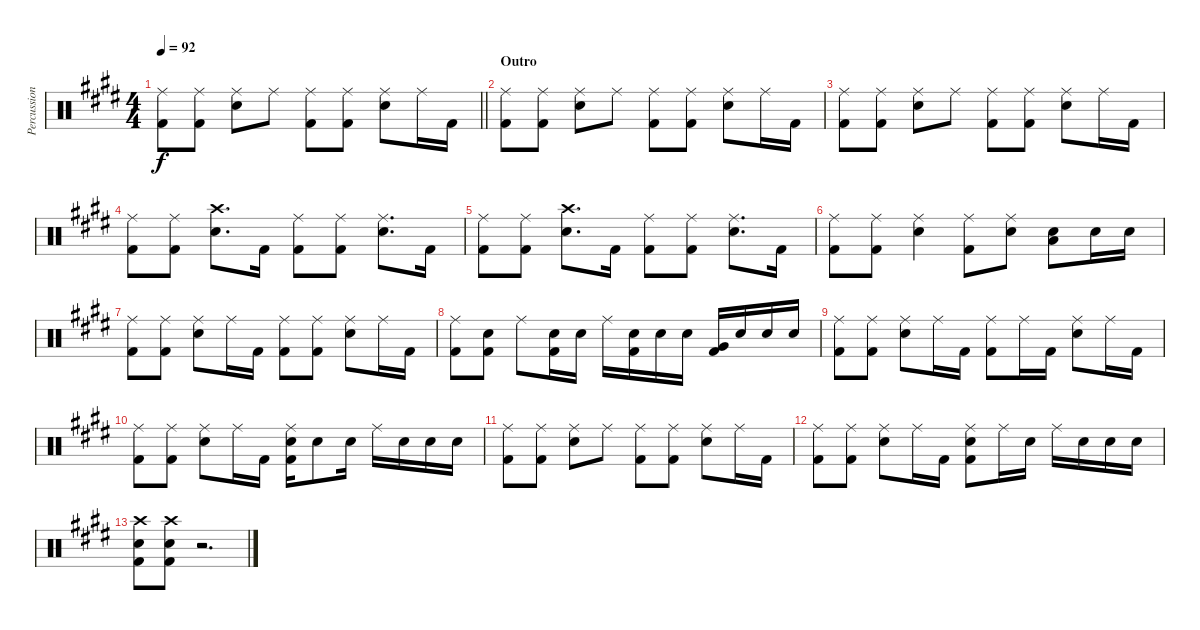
\track ("Percussion" "Percussion") {instrument percussion}
\staff {score}
\articulation defaults
\ts (4 4)
\tempo 92
\clef neutral
\barLineRight lightlight
\ks e
("Ride (middle)" "Kick (hit) 2").8{dy f} ("Ride (middle)" "Kick (hit) 2").8 ("Ride (middle)" "Electric Snare (hit)").8 "Ride (middle)".8 ("Ride (middle)" "Kick (hit) 2").8 ("Ride (middle)" "Kick (hit) 2").8 ("Ride (middle)" "Electric Snare (hit)").8 "Ride (middle)".16 "Kick (hit) 2".16 |
\section ("" "Outro")
("Ride (middle)" "Kick (hit) 2").8 ("Ride (middle)" "Kick (hit) 2").8 ("Ride (middle)" "Electric Snare (hit)").8 "Ride (middle)".8 ("Ride (middle)" "Kick (hit) 2").8 ("Ride (middle)" "Kick (hit) 2").8 ("Ride (middle)" "Electric Snare (hit)").8 "Ride (middle)".16 "Kick (hit) 2".16 |
("Ride (middle)" "Kick (hit) 2").8 ("Ride (middle)" "Kick (hit) 2").8 ("Ride (middle)" "Electric Snare (hit)").8 "Ride (middle)".8 ("Ride (middle)" "Kick (hit) 2").8 ("Ride (middle)" "Kick (hit) 2").8 ("Ride (middle)" "Electric Snare (hit)").8 "Ride (middle)".16 "Kick (hit) 2".16 |
("Ride (middle)" "Kick (hit) 2").8 ("Ride (middle)" "Kick (hit) 2").8 ("Crash high (hit)" "Electric Snare (hit)").8{d} "Kick (hit) 2".16 ("Ride (middle)" "Kick (hit) 2").8 ("Ride (middle)" "Kick (hit) 2").8 ("Ride (middle)" "Electric Snare (hit)").8{d} "Kick (hit) 2".16 |
("Ride (middle)" "Kick (hit) 2").8 ("Ride (middle)" "Kick (hit) 2").8 ("Crash high (hit)" "Electric Snare (hit)").8{d} "Kick (hit) 2".16 ("Ride (middle)" "Kick (hit) 2").8 ("Ride (middle)" "Kick (hit) 2").8 ("Ride (middle)" "Electric Snare (hit)").8{d} "Kick (hit) 2".16 |
("Ride (middle)" "Kick (hit) 2").8 ("Ride (middle)" "Kick (hit) 2").8 ("Ride (middle)" "Electric Snare (hit)").4 ("Ride (middle)" "Kick (hit) 2").8 ("Ride (middle)" "Electric Snare (hit)").8 ("Low Tom (hit)" "Electric Snare (hit)").8 "Electric Snare (hit)".16 "Electric Snare (hit)".16 |
("Ride (middle)" "Kick (hit) 2").8 ("Ride (middle)" "Kick (hit) 2").8 ("Ride (middle)" "Electric Snare (hit)").8 "Ride (middle)".16 "Kick (hit) 2".16 ("Ride (middle)" "Kick (hit) 2").8 ("Ride (middle)" "Kick (hit) 2").8 ("Ride (middle)" "Electric Snare (hit)").8 "Ride (middle)".16 "Kick (hit) 2".16 |
("Ride (middle)" "Kick (hit) 2").8 ("Electric Snare (hit)" "Kick (hit) 2").8 "Ride (middle)".8 ("Electric Snare (hit)" "Kick (hit) 2").16 "Electric Snare (hit)".16 "Ride (middle)".16 ("Electric Snare (hit)" "Kick (hit) 2").16 "Electric Snare (hit)".16 "Electric Snare (hit)".16 ("Very Low Tom (hit)" "Kick (hit) 2").16 "Electric Snare (hit)".16 "Electric Snare (hit)".16 "Electric Snare (hit)".16 |
("Ride (middle)" "Kick (hit) 2").8 ("Ride (middle)" "Kick (hit) 2").8 ("Ride (middle)" "Electric Snare (hit)").8 "Ride (middle)".16 "Kick (hit) 2".16 ("Ride (middle)" "Kick (hit) 2").8 "Ride (middle)".16 "Kick (hit) 2".16 ("Ride (middle)" "Electric Snare (hit)").8 "Ride (middle)".16 "Kick (hit) 2".16 |
("Ride (middle)" "Kick (hit) 2").8 ("Ride (middle)" "Kick (hit) 2").8 ("Ride (middle)" "Electric Snare (hit)").8 "Ride (middle)".16 "Kick (hit) 2".16 ("Ride (middle)" "Electric Snare (hit)" "Kick (hit) 2").16 "Electric Snare (hit)".8 "Electric Snare (hit)".16 "Ride (middle)".16 "Electric Snare (hit)".16 "Electric Snare (hit)".16 "Electric Snare (hit)".16 |
("Ride (middle)" "Kick (hit) 2").8 ("Ride (middle)" "Kick (hit) 2").8 ("Ride (middle)" "Electric Snare (hit)").8 "Ride (middle)".8 ("Ride (middle)" "Kick (hit) 2").8 ("Ride (middle)" "Kick (hit) 2").8 ("Ride (middle)" "Electric Snare (hit)").8 "Ride (middle)".16 "Kick (hit) 2".16 |
("Ride (middle)" "Kick (hit) 2").8 ("Ride (middle)" "Kick (hit) 2").8 ("Ride (middle)" "Electric Snare (hit)").8 "Ride (middle)".16 "Kick (hit) 2".16 ("Ride (middle)" "Electric Snare (hit)" "Kick (hit) 2").8 "Ride (middle)".16 "Electric Snare (hit)".16 "Ride (middle)".16 "Electric Snare (hit)".16 "Electric Snare (hit)".16 "Electric Snare (hit)".16 |
("Crash high (hit)" "Electric Snare (hit)" "Kick (hit) 2").8 ("Crash high (hit)" "Electric Snare (hit)" "Kick (hit) 2").8 r.2{d}
